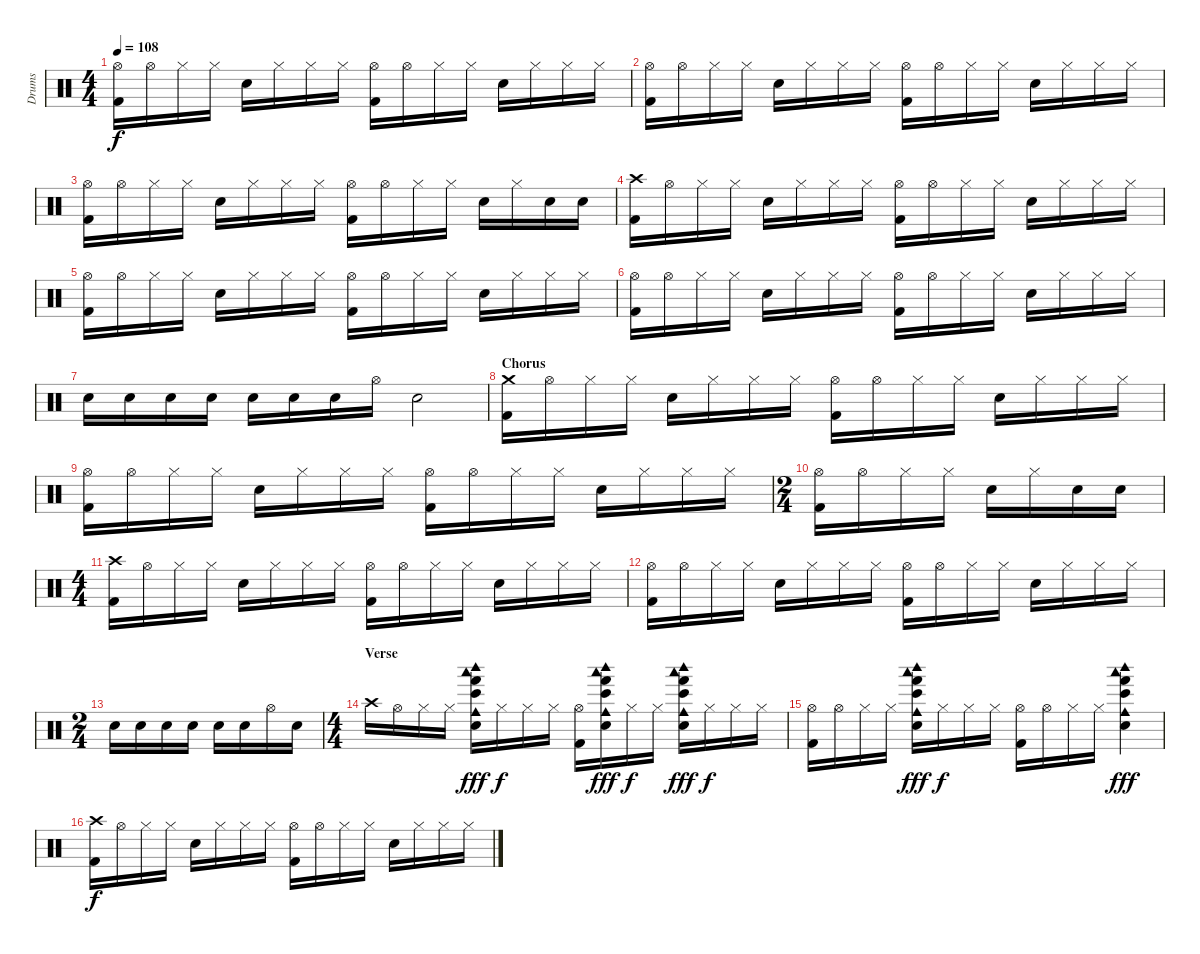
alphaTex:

\track ("Drums" "Drums") {instrument percussion}
\staff {score}
\articulation defaults
\ts (4 4)
\tempo 108
\clef neutral
\ks c
("Hi-Hat (open)" "Kick (hit) 2").16{dy f} "Hi-Hat (open)".16 "Hi-Hat (closed)".16 "Hi-Hat (closed)".16 "Electric Snare (hit)".16 "Hi-Hat (closed)".16 "Hi-Hat (closed)".16 "Hi-Hat (closed)".16 ("Hi-Hat (open)" "Kick (hit) 2").16 "Hi-Hat (open)".16 "Hi-Hat (closed)".16 "Hi-Hat (closed)".16 "Electric Snare (hit)".16 "Hi-Hat (closed)".16 "Hi-Hat (closed)".16 "Hi-Hat (closed)".16 |
("Hi-Hat (open)" "Kick (hit) 2").16 "Hi-Hat (open)".16 "Hi-Hat (closed)".16 "Hi-Hat (closed)".16 "Electric Snare (hit)".16 "Hi-Hat (closed)".16 "Hi-Hat (closed)".16 "Hi-Hat (closed)".16 ("Hi-Hat (open)" "Kick (hit) 2").16 "Hi-Hat (open)".16 "Hi-Hat (closed)".16 "Hi-Hat (closed)".16 "Electric Snare (hit)".16 "Hi-Hat (closed)".16 "Hi-Hat (closed)".16 "Hi-Hat (closed)".16 |
("Hi-Hat (open)" "Kick (hit) 2").16 "Hi-Hat (open)".16 "Hi-Hat (closed)".16 "Hi-Hat (closed)".16 "Electric Snare (hit)".16 "Hi-Hat (closed)".16 "Hi-Hat (closed)".16 "Hi-Hat (closed)".16 ("Hi-Hat (open)" "Kick (hit) 2").16 "Hi-Hat (open)".16 "Hi-Hat (closed)".16 "Hi-Hat (closed)".16 "Electric Snare (hit)".16 "Hi-Hat (closed)".16 "Electric Snare (hit)".16 "Electric Snare (hit)".16 |
("Crash high (hit)" "Kick (hit) 2").16 "Hi-Hat (open)".16 "Hi-Hat (closed)".16 "Hi-Hat (closed)".16 "Electric Snare (hit)".16 "Hi-Hat (closed)".16 "Hi-Hat (closed)".16 "Hi-Hat (closed)".16 ("Hi-Hat (open)" "Kick (hit) 2").16 "Hi-Hat (open)".16 "Hi-Hat (closed)".16 "Hi-Hat (closed)".16 "Electric Snare (hit)".16 "Hi-Hat (closed)".16 "Hi-Hat (closed)".16 "Hi-Hat (closed)".16 |
("Hi-Hat (open)" "Kick (hit) 2").16 "Hi-Hat (open)".16 "Hi-Hat (closed)".16 "Hi-Hat (closed)".16 "Electric Snare (hit)".16 "Hi-Hat (closed)".16 "Hi-Hat (closed)".16 "Hi-Hat (closed)".16 ("Hi-Hat (open)" "Kick (hit) 2").16 "Hi-Hat (open)".16 "Hi-Hat (closed)".16 "Hi-Hat (closed)".16 "Electric Snare (hit)".16 "Hi-Hat (closed)".16 "Hi-Hat (closed)".16 "Hi-Hat (closed)".16 |
("Hi-Hat (open)" "Kick (hit) 2").16 "Hi-Hat (open)".16 "Hi-Hat (closed)".16 "Hi-Hat (closed)".16 "Electric Snare (hit)".16 "Hi-Hat (closed)".16 "Hi-Hat (closed)".16 "Hi-Hat (closed)".16 ("Hi-Hat (open)" "Kick (hit) 2").16 "Hi-Hat (open)".16 "Hi-Hat (closed)".16 "Hi-Hat (closed)".16 "Electric Snare (hit)".16 "Hi-Hat (closed)".16 "Hi-Hat (closed)".16 "Hi-Hat (closed)".16 |
"Electric Snare (hit)".16 "Electric Snare (hit)".16 "Electric Snare (hit)".16 "Electric Snare (hit)".16 "Electric Snare (hit)".16 "Electric Snare (hit)".16 "Electric Snare (hit)".16 "Hi-Hat (open)".16 "Electric Snare (hit)".2 |
\section ("" "Chorus")
("Crash medium (hit)" "Kick (hit) 2").16 "Hi-Hat (open)".16 "Hi-Hat (closed)".16 "Hi-Hat (closed)".16 "Electric Snare (hit)".16 "Hi-Hat (closed)".16 "Hi-Hat (closed)".16 "Hi-Hat (closed)".16 ("Hi-Hat (open)" "Kick (hit) 2").16 "Hi-Hat (open)".16 "Hi-Hat (closed)".16 "Hi-Hat (closed)".16 "Electric Snare (hit)".16 "Hi-Hat (closed)".16 "Hi-Hat (closed)".16 "Hi-Hat (closed)".16 |
("Hi-Hat (open)" "Kick (hit) 2").16 "Hi-Hat (open)".16 "Hi-Hat (closed)".16 "Hi-Hat (closed)".16 "Electric Snare (hit)".16 "Hi-Hat (closed)".16 "Hi-Hat (closed)".16 "Hi-Hat (closed)".16 ("Hi-Hat (open)" "Kick (hit) 2").16 "Hi-Hat (open)".16 "Hi-Hat (closed)".16 "Hi-Hat (closed)".16 "Electric Snare (hit)".16 "Hi-Hat (closed)".16 "Hi-Hat (closed)".16 "Hi-Hat (closed)".16 |
\ts (2 4)
("Hi-Hat (open)" "Kick (hit) 2").16 "Hi-Hat (open)".16 "Hi-Hat (closed)".16 "Hi-Hat (closed)".16 "Electric Snare (hit)".16 "Hi-Hat (closed)".16 "Electric Snare (hit)".16 "Electric Snare (hit)".16 |
\ts (4 4)
("Crash high (hit)" "Kick (hit) 2").16 "Hi-Hat (open)".16 "Hi-Hat (closed)".16 "Hi-Hat (closed)".16 "Electric Snare (hit)".16 "Hi-Hat (closed)".16 "Hi-Hat (closed)".16 "Hi-Hat (closed)".16 ("Hi-Hat (open)" "Kick (hit) 2").16 "Hi-Hat (open)".16 "Hi-Hat (closed)".16 "Hi-Hat (closed)".16 "Electric Snare (hit)".16 "Hi-Hat (closed)".16 "Hi-Hat (closed)".16 "Hi-Hat (closed)".16 |
("Hi-Hat (open)" "Kick (hit) 2").16 "Hi-Hat (open)".16 "Hi-Hat (closed)".16 "Hi-Hat (closed)".16 "Electric Snare (hit)".16 "Hi-Hat (closed)".16 "Hi-Hat (closed)".16 "Hi-Hat (closed)".16 ("Hi-Hat (open)" "Kick (hit) 2").16 "Hi-Hat (open)".16 "Hi-Hat (closed)".16 "Hi-Hat (closed)".16 "Electric Snare (hit)".16 "Hi-Hat (closed)".16 "Hi-Hat (closed)".16 "Hi-Hat (closed)".16 |
\ts (2 4)
"Electric Snare (hit)".16 "Electric Snare (hit)".16 "Electric Snare (hit)".16 "Electric Snare (hit)".16 "Electric Snare (hit)".16 "Electric Snare (hit)".16 "Hi-Hat (open)".16 "Electric Snare (hit)".16 |
\ts (4 4)
\section ("" "Verse")
"Crash high (hit)".16 "Hi-Hat (open)".16 "Hi-Hat (closed)".16 "Hi-Hat (closed)".16 ("Woodblock low (hit)" "Woodblock high (hit)" "Cowbell medium (hit)" "Electric Snare (hit)" "Hand (hit)" "Bongo High (hit)").16{dy fff} "Hi-Hat (closed)".16{dy f} "Hi-Hat (closed)".16 "Hi-Hat (closed)".16 ("Hi-Hat (open)" "Kick (hit) 2").16 ("Woodblock low (hit)" "Woodblock high (hit)" "Cowbell medium (hit)" "Electric Snare (hit)" "Hand (hit)" "Bongo High (hit)").16{dy fff} "Hi-Hat (closed)".16{dy f} "Hi-Hat (closed)".16 ("Woodblock low (hit)" "Woodblock high (hit)" "Cowbell medium (hit)" "Electric Snare (hit)" "Hand (hit)" "Bongo High (hit)").16{dy fff} "Hi-Hat (closed)".16{dy f} "Hi-Hat (closed)".16 "Hi-Hat (closed)".16 |
("Hi-Hat (open)" "Kick (hit) 2").16 "Hi-Hat (open)".16 "Hi-Hat (closed)".16 "Hi-Hat (closed)".16 ("Woodblock low (hit)" "Woodblock high (hit)" "Cowbell medium (hit)" "Electric Snare (hit)" "Hand (hit)" "Bongo High (hit)").16{dy fff} "Hi-Hat (closed)".16{dy f} "Hi-Hat (closed)".16 "Hi-Hat (closed)".16 ("Hi-Hat (open)" "Kick (hit) 2").16 "Hi-Hat (open)".16 "Hi-Hat (closed)".16 "Hi-Hat (closed)".16 ("Woodblock low (hit)" "Woodblock high (hit)" "Cowbell medium (hit)" "Electric Snare (hit)" "Hand (hit)" "Bongo High (hit)").4{dy fff} |
("Crash high (hit)" "Kick (hit) 2").16{dy f} "Hi-Hat (open)".16 "Hi-Hat (closed)".16 "Hi-Hat (closed)".16 "Electric Snare (hit)".16 "Hi-Hat (closed)".16 "Hi-Hat (closed)".16 "Hi-Hat (closed)".16 ("Hi-Hat (open)" "Kick (hit) 2").16 "Hi-Hat (open)".16 "Hi-Hat (closed)".16 "Hi-Hat (closed)".16 "Electric Snare (hit)".16 "Hi-Hat (closed)".16 "Hi-Hat (closed)".16 "Hi-Hat (closed)".16
